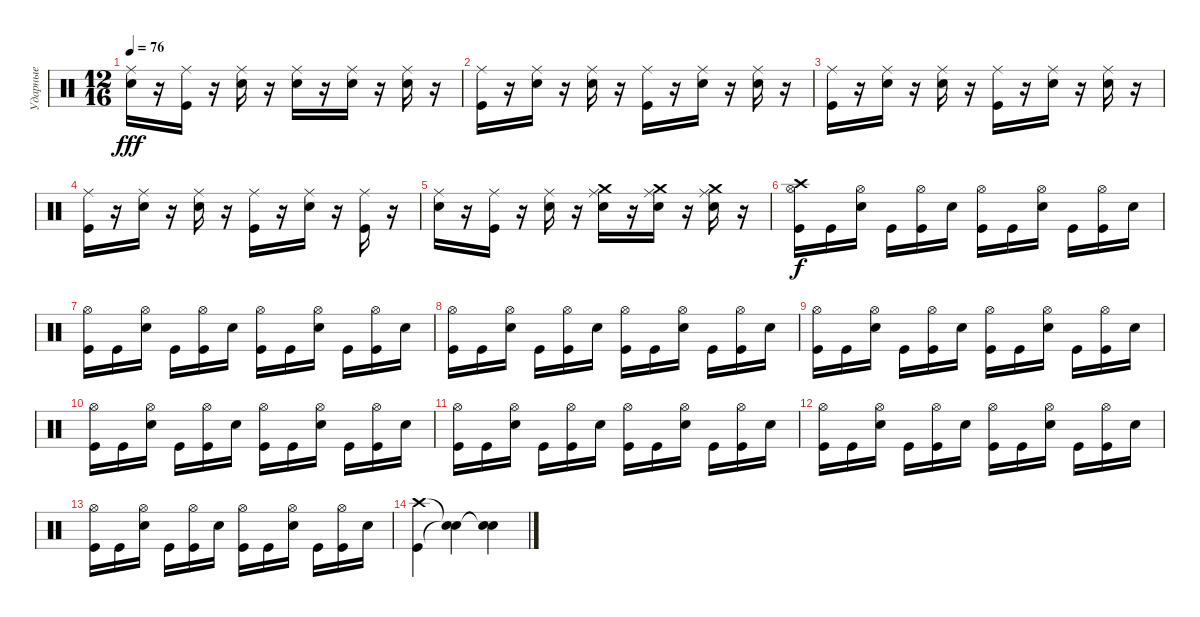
\track ("Ударные" "Ударные") {instrument percussion}
\staff {score}
\articulation defaults
\ts (12 16)
\tempo 76
\clef neutral
\ks c
("Snare (hit) 2" "Ride (middle)").16{dy fff} r.16 ("Kick (hit)" "Ride (middle)").16 r.16 ("Snare (hit) 2" "Ride (middle)").16 r.16 ("Snare (hit) 2" "Ride (middle)").16 r.16 ("Snare (hit) 2" "Ride (middle)").16 r.16 ("Snare (hit) 2" "Ride (middle)").16 r.16 |
("Kick (hit)" "Ride (middle)").16 r.16 ("Snare (hit) 2" "Ride (middle)").16 r.16 ("Snare (hit) 2" "Ride (middle)").16 r.16 ("Kick (hit)" "Ride (middle)").16 r.16 ("Snare (hit) 2" "Ride (middle)").16 r.16 ("Snare (hit) 2" "Ride (middle)").16 r.16 |
("Kick (hit)" "Ride (middle)").16 r.16 ("Snare (hit) 2" "Ride (middle)").16 r.16 ("Snare (hit) 2" "Ride (middle)").16 r.16 ("Kick (hit)" "Ride (middle)").16 r.16 ("Snare (hit) 2" "Ride (middle)").16 r.16 ("Snare (hit) 2" "Ride (middle)").16 r.16 |
("Kick (hit)" "Ride (middle)").16 r.16 ("Snare (hit) 2" "Ride (middle)").16 r.16 ("Snare (hit) 2" "Ride (middle)").16 r.16 ("Kick (hit)" "Ride (middle)").16 r.16 ("Snare (hit) 2" "Ride (middle)").16 r.16 ("Kick (hit)" "Ride (middle)").16 r.16 |
("Snare (hit) 2" "Ride (middle)").16 r.16 ("Kick (hit)" "Ride (middle)").16 r.16 ("Snare (hit) 2" "Ride (middle)").16 r.16 ("Snare (hit) 2" "Ride (middle)" "Crash medium (hit)").16 r.16 ("Snare (hit) 2" "Ride (middle)" "Crash medium (hit)").16 r.16 ("Snare (hit) 2" "Ride (middle)" "Crash medium (hit)").16 r.16 |
("Kick (hit)" "Crash high (hit)" "Hi-Hat (open)").16{dy f} "Kick (hit)".16 ("Snare (hit) 2" "Hi-Hat (open)").16 "Kick (hit)".16 ("Kick (hit)" "Hi-Hat (open)").16 "Snare (hit) 2".16 ("Kick (hit)" "Hi-Hat (open)").16 "Kick (hit)".16 ("Snare (hit) 2" "Hi-Hat (open)").16 "Kick (hit)".16 ("Kick (hit)" "Hi-Hat (open)").16 "Snare (hit) 2".16 |
("Kick (hit)" "Hi-Hat (open)").16 "Kick (hit)".16 ("Snare (hit) 2" "Hi-Hat (open)").16 "Kick (hit)".16 ("Kick (hit)" "Hi-Hat (open)").16 "Snare (hit) 2".16 ("Kick (hit)" "Hi-Hat (open)").16 "Kick (hit)".16 ("Snare (hit) 2" "Hi-Hat (open)").16 "Kick (hit)".16 ("Kick (hit)" "Hi-Hat (open)").16 "Snare (hit) 2".16 |
("Kick (hit)" "Hi-Hat (open)").16 "Kick (hit)".16 ("Snare (hit) 2" "Hi-Hat (open)").16 "Kick (hit)".16 ("Kick (hit)" "Hi-Hat (open)").16 "Snare (hit) 2".16 ("Kick (hit)" "Hi-Hat (open)").16 "Kick (hit)".16 ("Snare (hit) 2" "Hi-Hat (open)").16 "Kick (hit)".16 ("Kick (hit)" "Hi-Hat (open)").16 "Snare (hit) 2".16 |
("Kick (hit)" "Hi-Hat (open)").16 "Kick (hit)".16 ("Snare (hit) 2" "Hi-Hat (open)").16 "Kick (hit)".16 ("Kick (hit)" "Hi-Hat (open)").16 "Snare (hit) 2".16 ("Kick (hit)" "Hi-Hat (open)").16 "Kick (hit)".16 ("Snare (hit) 2" "Hi-Hat (open)").16 "Kick (hit)".16 ("Kick (hit)" "Hi-Hat (open)").16 "Snare (hit) 2".16 |
("Kick (hit)" "Hi-Hat (open)").16 "Kick (hit)".16 ("Snare (hit) 2" "Hi-Hat (open)").16 "Kick (hit)".16 ("Kick (hit)" "Hi-Hat (open)").16 "Snare (hit) 2".16 ("Kick (hit)" "Hi-Hat (open)").16 "Kick (hit)".16 ("Snare (hit) 2" "Hi-Hat (open)").16 "Kick (hit)".16 ("Kick (hit)" "Hi-Hat (open)").16 "Snare (hit) 2".16 |
("Kick (hit)" "Hi-Hat (open)").16 "Kick (hit)".16 ("Snare (hit) 2" "Hi-Hat (open)").16 "Kick (hit)".16 ("Kick (hit)" "Hi-Hat (open)").16 "Snare (hit) 2".16 ("Kick (hit)" "Hi-Hat (open)").16 "Kick (hit)".16 ("Snare (hit) 2" "Hi-Hat (open)").16 "Kick (hit)".16 ("Kick (hit)" "Hi-Hat (open)").16 "Snare (hit) 2".16 |
("Kick (hit)" "Hi-Hat (open)").16 "Kick (hit)".16 ("Snare (hit) 2" "Hi-Hat (open)").16 "Kick (hit)".16 ("Kick (hit)" "Hi-Hat (open)").16 "Snare (hit) 2".16 ("Kick (hit)" "Hi-Hat (open)").16 "Kick (hit)".16 ("Snare (hit) 2" "Hi-Hat (open)").16 "Kick (hit)".16 ("Kick (hit)" "Hi-Hat (open)").16 "Snare (hit) 2".16 |
("Kick (hit)" "Hi-Hat (open)").16 "Kick (hit)".16 ("Snare (hit) 2" "Hi-Hat (open)").16 "Kick (hit)".16 ("Kick (hit)" "Hi-Hat (open)").16 "Snare (hit) 2".16 ("Kick (hit)" "Hi-Hat (open)").16 "Kick (hit)".16 ("Snare (hit) 2" "Hi-Hat (open)").16 "Kick (hit)".16 ("Kick (hit)" "Hi-Hat (open)").16 "Snare (hit) 2".16 |
("Kick (hit)" "Crash high (hit)").4 ("Snare (hit)"{t} "Snare (hit)"{t}).4 ("Snare (hit)"{t} "Snare (hit)"{t}).4
